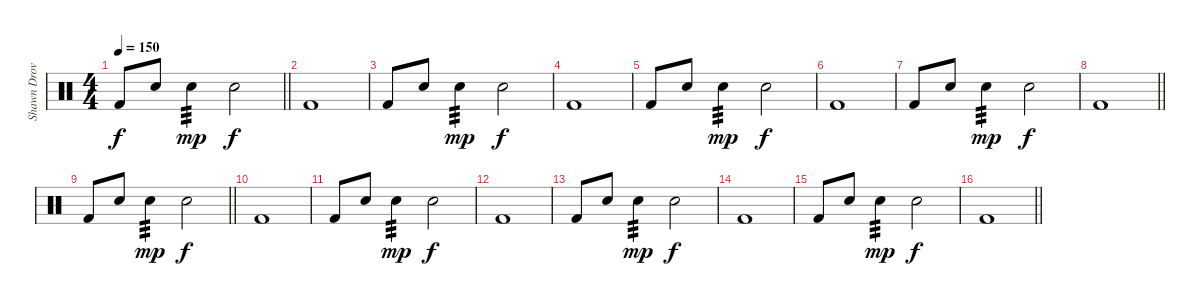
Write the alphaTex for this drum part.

\track ("Shawn Drover" "Shawn Drov") {instrument percussion}
\staff {score}
\articulation defaults
\ts (4 4)
\tempo 150
\clef neutral
\barLineRight lightlight
\ks c "Kick (hit) 2".8{dy f} "Snare (hit) 2".8 "Snare (hit) 2".4{tp 3 dy mp} "Snare (hit) 2".2{dy f}
|
"Kick (hit) 2".1 |
"Kick (hit) 2".8 "Snare (hit) 2".8 "Snare (hit) 2".4{tp 3 dy mp} "Snare (hit) 2".2{dy f} |
"Kick (hit) 2".1 |
"Kick (hit) 2".8 "Snare (hit) 2".8 "Snare (hit) 2".4{tp 3 dy mp} "Snare (hit) 2".2{dy f} |
"Kick (hit) 2".1 |
"Kick (hit) 2".8 "Snare (hit) 2".8 "Snare (hit) 2".4{tp 3 dy mp} "Snare (hit) 2".2{dy f} |
\barLineRight lightlight "Kick (hit) 2".1
|
\barLineRight lightlight "Kick (hit) 2".8 "Snare (hit) 2".8 "Snare (hit) 2".4{tp 3 dy mp} "Snare (hit) 2".2{dy f}
|
"Kick (hit) 2".1 |
"Kick (hit) 2".8 "Snare (hit) 2".8 "Snare (hit) 2".4{tp 3 dy mp} "Snare (hit) 2".2{dy f} |
"Kick (hit) 2".1 |
"Kick (hit) 2".8 "Snare (hit) 2".8 "Snare (hit) 2".4{tp 3 dy mp} "Snare (hit) 2".2{dy f} |
"Kick (hit) 2".1 |
"Kick (hit) 2".8 "Snare (hit) 2".8 "Snare (hit) 2".4{tp 3 dy mp} "Snare (hit) 2".2{dy f} |
\barLineRight lightlight "Kick (hit) 2".1
